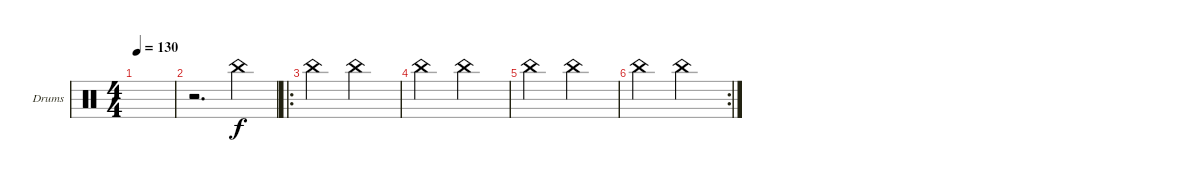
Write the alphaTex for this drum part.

\bracketExtendMode groupsimilarinstruments
\firstSystemTrackNameOrientation horizontal
\otherSystemsTrackNameOrientation horizontal
\track ("Drumkit" "Drums") {instrument percussion}
\staff {score}
\articulation defaults
\ts (4 4)
\tempo 130
\clef neutral
\ks c
|
r.2{d} "China (hit)".4 |
\ro "China (hit)".2 "China (hit)".2
|
"China (hit)".2 "China (hit)".2 |
"China (hit)".2 "China (hit)".2 |
\rc 2 "China (hit)".2 "China (hit)".2
